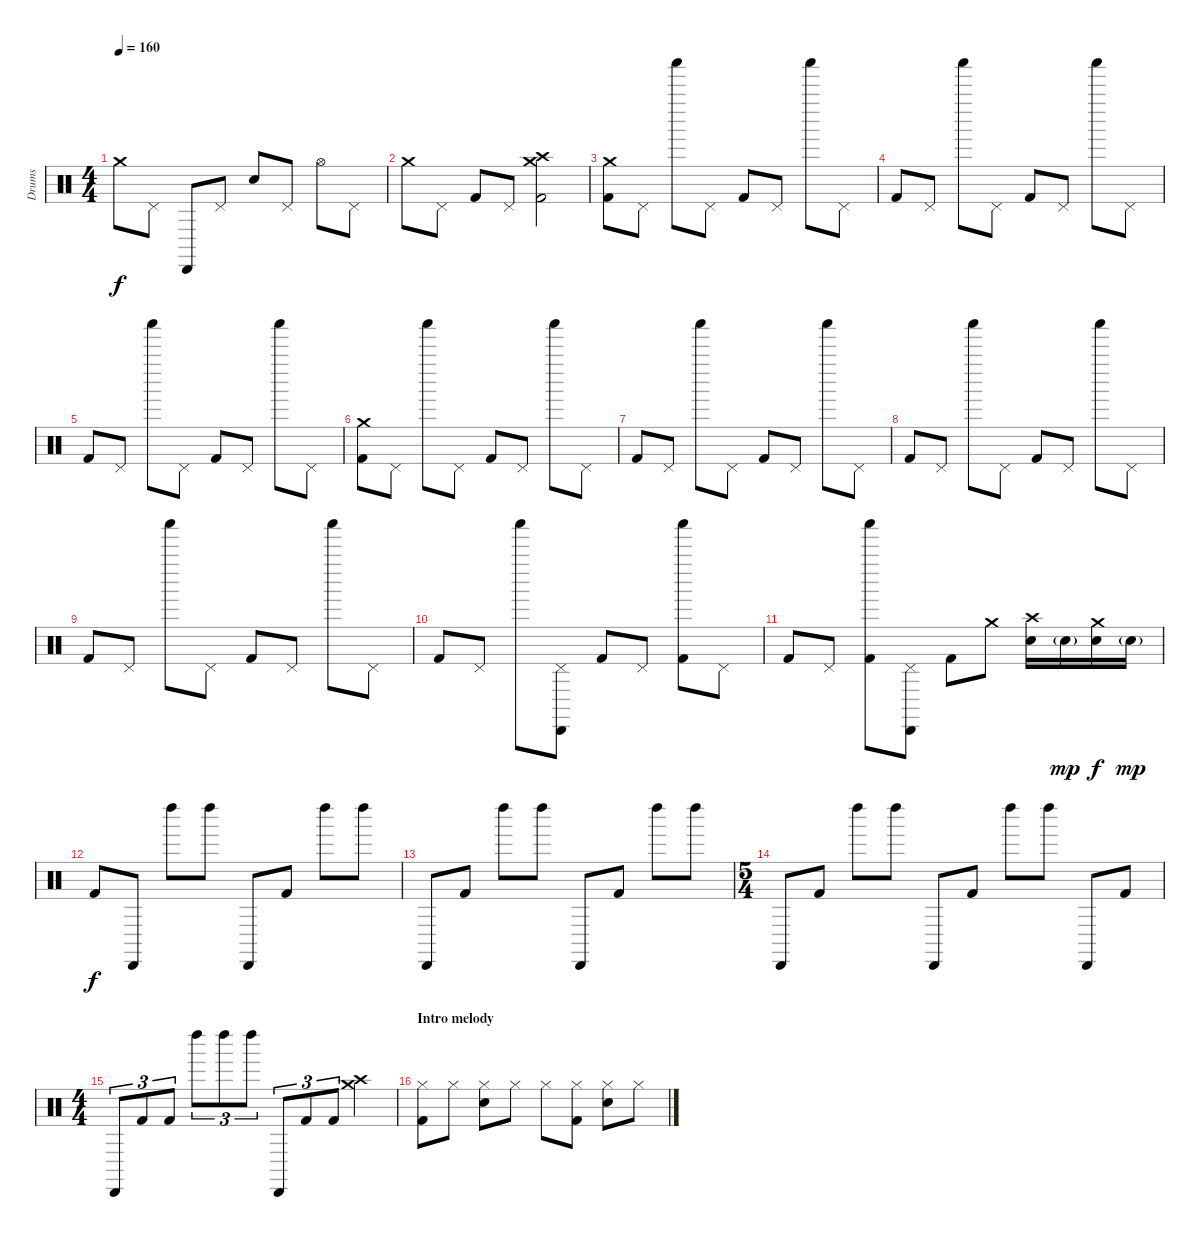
\track ("Drums" "Drums") {instrument percussion}
\staff {score}
\articulation defaults
\ts (4 4)
\tempo 160
\clef neutral
\ks c "Crash medium (hit)".8{dy f} "Pedal Hi-Hat (hit)".8 "Cabasa (hit)".8 "Pedal Hi-Hat (hit)".8 "Snare (hit) 2".8 "Pedal Hi-Hat (hit)".8 "Hi-Hat (open)".8 "Pedal Hi-Hat (hit)".8
|
"Crash medium (hit)".8 "Pedal Hi-Hat (hit)".8 "Kick (hit) 2".8 "Pedal Hi-Hat (hit)".8 ("Crash medium (hit)" "Crash high (hit)" "Kick (hit) 2").2 |
("Crash medium (hit)" "Kick (hit) 2").8 "Pedal Hi-Hat (hit)".8 "Shaker (hit)".8 "Pedal Hi-Hat (hit)".8 "Kick (hit) 2".8 "Pedal Hi-Hat (hit)".8 "Shaker (hit)".8 "Pedal Hi-Hat (hit)".8 |
"Kick (hit) 2".8 "Pedal Hi-Hat (hit)".8 "Shaker (hit)".8 "Pedal Hi-Hat (hit)".8 "Kick (hit) 2".8 "Pedal Hi-Hat (hit)".8 "Shaker (hit)".8 "Pedal Hi-Hat (hit)".8 |
"Kick (hit) 2".8 "Pedal Hi-Hat (hit)".8 "Shaker (hit)".8 "Pedal Hi-Hat (hit)".8 "Kick (hit) 2".8 "Pedal Hi-Hat (hit)".8 "Shaker (hit)".8 "Pedal Hi-Hat (hit)".8 |
("Crash medium (hit)" "Kick (hit) 2").8 "Pedal Hi-Hat (hit)".8 "Shaker (hit)".8 "Pedal Hi-Hat (hit)".8 "Kick (hit) 2".8 "Pedal Hi-Hat (hit)".8 "Shaker (hit)".8 "Pedal Hi-Hat (hit)".8 |
"Kick (hit) 2".8 "Pedal Hi-Hat (hit)".8 "Shaker (hit)".8 "Pedal Hi-Hat (hit)".8 "Kick (hit) 2".8 "Pedal Hi-Hat (hit)".8 "Shaker (hit)".8 "Pedal Hi-Hat (hit)".8 |
"Kick (hit) 2".8 "Pedal Hi-Hat (hit)".8 "Shaker (hit)".8 "Pedal Hi-Hat (hit)".8 "Kick (hit) 2".8 "Pedal Hi-Hat (hit)".8 "Shaker (hit)".8 "Pedal Hi-Hat (hit)".8 |
"Kick (hit) 2".8 "Pedal Hi-Hat (hit)".8 "Shaker (hit)".8 "Pedal Hi-Hat (hit)".8 "Kick (hit) 2".8 "Pedal Hi-Hat (hit)".8 "Shaker (hit)".8 "Pedal Hi-Hat (hit)".8 |
"Kick (hit) 2".8 "Pedal Hi-Hat (hit)".8 "Shaker (hit)".8 ("Cabasa (hit)" "Pedal Hi-Hat (hit)").8 "Kick (hit) 2".8 "Pedal Hi-Hat (hit)".8 ("Shaker (hit)" "Kick (hit) 2").8 "Pedal Hi-Hat (hit)".8 |
"Kick (hit) 2".8 "Pedal Hi-Hat (hit)".8 ("Shaker (hit)" "Kick (hit) 2").8 ("Cabasa (hit)" "Pedal Hi-Hat (hit)").8 "Kick (hit) 2".8 "Crash medium (hit)".8 ("Crash high (hit)" "Snare (hit) 2").16 "Snare (hit) 2"{g}.16{dy mp} ("Crash medium (hit)" "Snare (hit) 2").16{dy f} "Snare (hit) 2"{g}.16{dy mp} |
"Kick (hit) 2".8{dy f} "Cabasa (hit)".8 "Left Maraca (hit)".8 "Left Maraca (hit)".8 "Cabasa (hit)".8 "Kick (hit) 2".8 "Left Maraca (hit)".8 "Left Maraca (hit)".8 |
"Cabasa (hit)".8 "Kick (hit) 2".8 "Left Maraca (hit)".8 "Left Maraca (hit)".8 "Cabasa (hit)".8 "Kick (hit) 2".8 "Left Maraca (hit)".8 "Left Maraca (hit)".8 |
\ts (5 4)
"Cabasa (hit)".8 "Kick (hit) 2".8 "Left Maraca (hit)".8 "Left Maraca (hit)".8 "Cabasa (hit)".8 "Kick (hit) 2".8 "Left Maraca (hit)".8 "Left Maraca (hit)".8 "Cabasa (hit)".8 "Kick (hit) 2".8 |
\ts (4 4)
"Cabasa (hit)".8{tu (3 2)} "Kick (hit) 2".8{tu (3 2)} "Kick (hit) 2".8{tu (3 2)} "Left Maraca (hit)".8{tu (3 2)} "Left Maraca (hit)".8{tu (3 2)} "Left Maraca (hit)".8{tu (3 2)} "Cabasa (hit)".8{tu (3 2)} "Kick (hit) 2".8{tu (3 2)} "Kick (hit) 2".8{tu (3 2)} ("Crash medium (hit)" "Crash high (hit)").4 |
\section ("" "Intro melody")
("Hi-Hat (closed)" "Kick (hit) 2").8 "Hi-Hat (closed)".8 ("Hi-Hat (closed)" "Snare (hit) 2").8 "Hi-Hat (closed)".8 "Hi-Hat (closed)".8 ("Hi-Hat (closed)" "Kick (hit) 2").8 ("Hi-Hat (closed)" "Snare (hit) 2").8 "Hi-Hat (closed)".8
